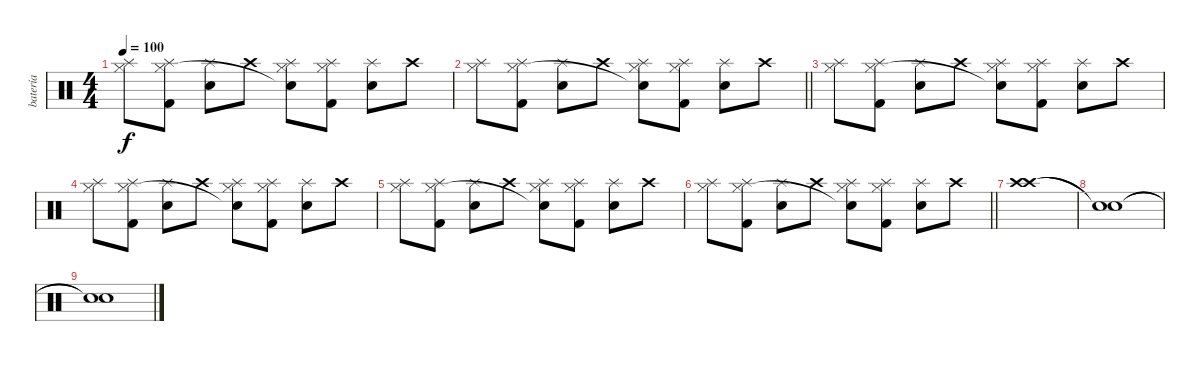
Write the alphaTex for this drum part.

\track ("batería" "batería") {instrument percussion}
\staff {score}
\articulation defaults
\ts (4 4)
\tempo 100
\clef neutral
\ks c
("Splash (hit)" "Hi-Hat (closed)").8{dy f} ("Kick (hit) 2" "Splash (hit)" "Hi-Hat (closed)").8 ("Splash (hit)" "Snare (hit) 2").8 "Crash high (hit)".8 ("Splash (hit)" "Hi-Hat (closed)" "Snare (hit)"{t}).8 ("Kick (hit) 2" "Splash (hit)" "Hi-Hat (closed)").8 ("Splash (hit)" "Snare (hit) 2").8 "Crash high (hit)".8 |
\barLineRight lightlight
("Splash (hit)" "Hi-Hat (closed)").8 ("Kick (hit) 2" "Splash (hit)" "Hi-Hat (closed)").8 ("Splash (hit)" "Snare (hit) 2").8 "Crash high (hit)".8 ("Splash (hit)" "Hi-Hat (closed)" "Snare (hit)"{t}).8 ("Kick (hit) 2" "Splash (hit)" "Hi-Hat (closed)").8 ("Splash (hit)" "Snare (hit) 2").8 "Crash high (hit)".8 |
("Splash (hit)" "Hi-Hat (closed)").8 ("Kick (hit) 2" "Splash (hit)" "Hi-Hat (closed)").8 ("Splash (hit)" "Snare (hit) 2").8 "Crash high (hit)".8 ("Splash (hit)" "Hi-Hat (closed)" "Snare (hit)"{t}).8 ("Kick (hit) 2" "Splash (hit)" "Hi-Hat (closed)").8 ("Splash (hit)" "Snare (hit) 2").8 "Crash high (hit)".8 |
("Splash (hit)" "Hi-Hat (closed)").8 ("Kick (hit) 2" "Splash (hit)" "Hi-Hat (closed)").8 ("Splash (hit)" "Snare (hit) 2").8 "Crash high (hit)".8 ("Splash (hit)" "Hi-Hat (closed)" "Snare (hit)"{t}).8 ("Kick (hit) 2" "Splash (hit)" "Hi-Hat (closed)").8 ("Splash (hit)" "Snare (hit) 2").8 "Crash high (hit)".8 |
("Splash (hit)" "Hi-Hat (closed)").8 ("Kick (hit) 2" "Splash (hit)" "Hi-Hat (closed)").8 ("Splash (hit)" "Snare (hit) 2").8 "Crash high (hit)".8 ("Splash (hit)" "Hi-Hat (closed)" "Snare (hit)"{t}).8 ("Kick (hit) 2" "Splash (hit)" "Hi-Hat (closed)").8 ("Splash (hit)" "Snare (hit) 2").8 "Crash high (hit)".8 |
\barLineRight lightlight
("Splash (hit)" "Hi-Hat (closed)").8 ("Kick (hit) 2" "Splash (hit)" "Hi-Hat (closed)").8 ("Splash (hit)" "Snare (hit) 2").8 "Crash high (hit)".8 ("Splash (hit)" "Hi-Hat (closed)" "Snare (hit)"{t}).8 ("Kick (hit) 2" "Splash (hit)" "Hi-Hat (closed)").8 ("Splash (hit)" "Snare (hit) 2").8 "Crash high (hit)".8 |
("Crash high (hit)" "Crash high (hit)").1 |
("Snare (hit)"{t} "Snare (hit)"{t}).1 |
("Snare (hit)"{t} "Snare (hit)"{t}).1
